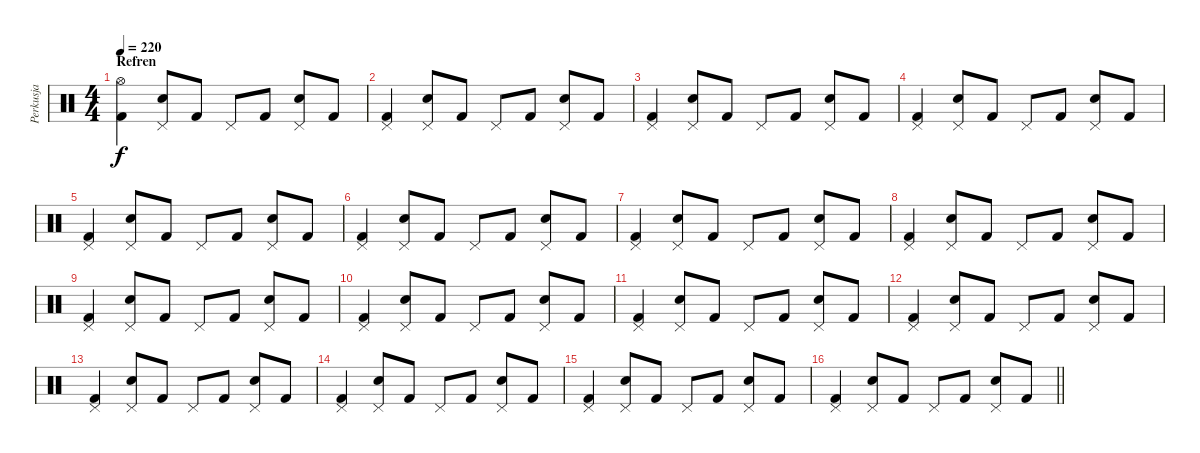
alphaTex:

\track ("Perkusja" "Perkusja") {instrument percussion}
\staff {score}
\articulation defaults
\ts (4 4)
\section ("" "Refren")
\tempo 220
\clef neutral
\ks c
("Hi-Hat (open)" "Kick (hit) 2").4{dy f} ("Pedal Hi-Hat (hit)" "Snare (hit) 2").8 "Kick (hit) 2".8 "Pedal Hi-Hat (hit)".8 "Kick (hit) 2".8 ("Pedal Hi-Hat (hit)" "Snare (hit) 2").8 "Kick (hit) 2".8 |
("Pedal Hi-Hat (hit)" "Kick (hit) 2").4 ("Pedal Hi-Hat (hit)" "Snare (hit) 2").8 "Kick (hit) 2".8 "Pedal Hi-Hat (hit)".8 "Kick (hit) 2".8 ("Pedal Hi-Hat (hit)" "Snare (hit) 2").8 "Kick (hit) 2".8 |
("Pedal Hi-Hat (hit)" "Kick (hit) 2").4 ("Pedal Hi-Hat (hit)" "Snare (hit) 2").8 "Kick (hit) 2".8 "Pedal Hi-Hat (hit)".8 "Kick (hit) 2".8 ("Pedal Hi-Hat (hit)" "Snare (hit) 2").8 "Kick (hit) 2".8 |
("Pedal Hi-Hat (hit)" "Kick (hit) 2").4 ("Pedal Hi-Hat (hit)" "Snare (hit) 2").8 "Kick (hit) 2".8 "Pedal Hi-Hat (hit)".8 "Kick (hit) 2".8 ("Pedal Hi-Hat (hit)" "Snare (hit) 2").8 "Kick (hit) 2".8 |
("Pedal Hi-Hat (hit)" "Kick (hit) 2").4 ("Pedal Hi-Hat (hit)" "Snare (hit) 2").8 "Kick (hit) 2".8 "Pedal Hi-Hat (hit)".8 "Kick (hit) 2".8 ("Pedal Hi-Hat (hit)" "Snare (hit) 2").8 "Kick (hit) 2".8 |
("Pedal Hi-Hat (hit)" "Kick (hit) 2").4 ("Pedal Hi-Hat (hit)" "Snare (hit) 2").8 "Kick (hit) 2".8 "Pedal Hi-Hat (hit)".8 "Kick (hit) 2".8 ("Pedal Hi-Hat (hit)" "Snare (hit) 2").8 "Kick (hit) 2".8 |
("Pedal Hi-Hat (hit)" "Kick (hit) 2").4 ("Pedal Hi-Hat (hit)" "Snare (hit) 2").8 "Kick (hit) 2".8 "Pedal Hi-Hat (hit)".8 "Kick (hit) 2".8 ("Pedal Hi-Hat (hit)" "Snare (hit) 2").8 "Kick (hit) 2".8 |
("Pedal Hi-Hat (hit)" "Kick (hit) 2").4 ("Pedal Hi-Hat (hit)" "Snare (hit) 2").8 "Kick (hit) 2".8 "Pedal Hi-Hat (hit)".8 "Kick (hit) 2".8 ("Pedal Hi-Hat (hit)" "Snare (hit) 2").8 "Kick (hit) 2".8 |
("Pedal Hi-Hat (hit)" "Kick (hit) 2").4 ("Pedal Hi-Hat (hit)" "Snare (hit) 2").8 "Kick (hit) 2".8 "Pedal Hi-Hat (hit)".8 "Kick (hit) 2".8 ("Pedal Hi-Hat (hit)" "Snare (hit) 2").8 "Kick (hit) 2".8 |
("Pedal Hi-Hat (hit)" "Kick (hit) 2").4 ("Pedal Hi-Hat (hit)" "Snare (hit) 2").8 "Kick (hit) 2".8 "Pedal Hi-Hat (hit)".8 "Kick (hit) 2".8 ("Pedal Hi-Hat (hit)" "Snare (hit) 2").8 "Kick (hit) 2".8 |
("Pedal Hi-Hat (hit)" "Kick (hit) 2").4 ("Pedal Hi-Hat (hit)" "Snare (hit) 2").8 "Kick (hit) 2".8 "Pedal Hi-Hat (hit)".8 "Kick (hit) 2".8 ("Pedal Hi-Hat (hit)" "Snare (hit) 2").8 "Kick (hit) 2".8 |
("Pedal Hi-Hat (hit)" "Kick (hit) 2").4 ("Pedal Hi-Hat (hit)" "Snare (hit) 2").8 "Kick (hit) 2".8 "Pedal Hi-Hat (hit)".8 "Kick (hit) 2".8 ("Pedal Hi-Hat (hit)" "Snare (hit) 2").8 "Kick (hit) 2".8 |
("Pedal Hi-Hat (hit)" "Kick (hit) 2").4 ("Pedal Hi-Hat (hit)" "Snare (hit) 2").8 "Kick (hit) 2".8 "Pedal Hi-Hat (hit)".8 "Kick (hit) 2".8 ("Pedal Hi-Hat (hit)" "Snare (hit) 2").8 "Kick (hit) 2".8 |
("Pedal Hi-Hat (hit)" "Kick (hit) 2").4 ("Pedal Hi-Hat (hit)" "Snare (hit) 2").8 "Kick (hit) 2".8 "Pedal Hi-Hat (hit)".8 "Kick (hit) 2".8 ("Pedal Hi-Hat (hit)" "Snare (hit) 2").8 "Kick (hit) 2".8 |
("Pedal Hi-Hat (hit)" "Kick (hit) 2").4 ("Pedal Hi-Hat (hit)" "Snare (hit) 2").8 "Kick (hit) 2".8 "Pedal Hi-Hat (hit)".8 "Kick (hit) 2".8 ("Pedal Hi-Hat (hit)" "Snare (hit) 2").8 "Kick (hit) 2".8 |
\barLineRight lightlight
("Pedal Hi-Hat (hit)" "Kick (hit) 2").4 ("Pedal Hi-Hat (hit)" "Snare (hit) 2").8 "Kick (hit) 2".8 "Pedal Hi-Hat (hit)".8 "Kick (hit) 2".8 ("Pedal Hi-Hat (hit)" "Snare (hit) 2").8 "Kick (hit) 2".8
